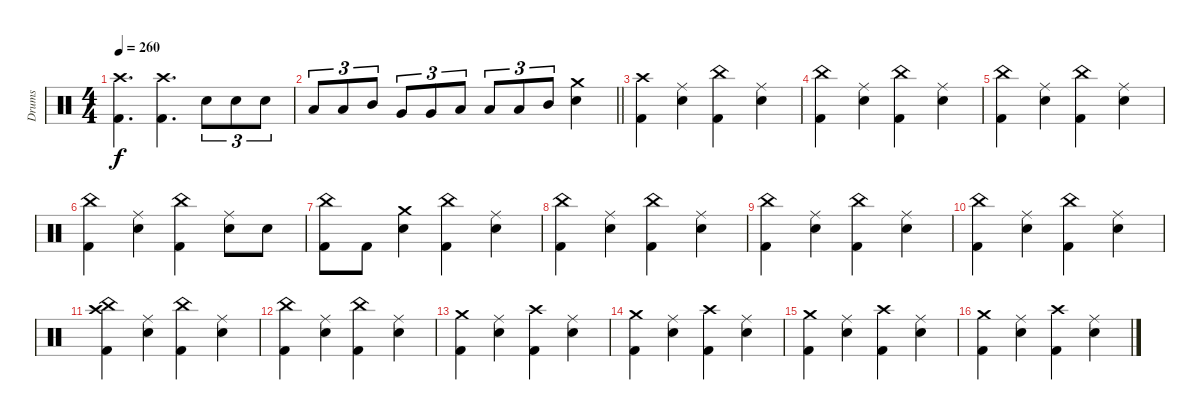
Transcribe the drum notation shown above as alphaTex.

\track ("Drums" "Drums") {instrument percussion}
\staff {score}
\articulation defaults
\ts (4 4)
\tempo 260
\clef neutral
\ks c
("Crash high (hit)" "Kick (hit) 2").4{d dy f} ("Crash high (hit)" "Kick (hit) 2").4{d} "Electric Snare (hit)".8{tu (3 2)} "Electric Snare (hit)".8{tu (3 2)} "Electric Snare (hit)".8{tu (3 2)} |
\barLineRight lightlight "Low Tom (hit)".8{tu (3 2)} "Low Tom (hit)".8{tu (3 2)} "Mid Tom (hit)".8{tu (3 2)} "Very Low Tom (hit)".8{tu (3 2)} "Very Low Tom (hit)".8{tu (3 2)} "Low Tom (hit)".8{tu (3 2)} "Low Tom (hit)".8{tu (3 2)} "Low Tom (hit)".8{tu (3 2)} "Mid Tom (hit)".8{tu (3 2)}
("Crash medium (hit)" "Electric Snare (hit)").4 |
("Crash high (hit)" "Kick (hit) 2").4 ("Ride (middle)" "Electric Snare (hit)").4 ("China (hit)" "Kick (hit) 2").4 ("Ride (middle)" "Electric Snare (hit)").4 |
("China (hit)" "Kick (hit) 2").4 ("Ride (middle)" "Electric Snare (hit)").4 ("China (hit)" "Kick (hit) 2").4 ("Ride (middle)" "Electric Snare (hit)").4 |
("China (hit)" "Kick (hit) 2").4 ("Ride (middle)" "Electric Snare (hit)").4 ("China (hit)" "Kick (hit) 2").4 ("Ride (middle)" "Electric Snare (hit)").4 |
("China (hit)" "Kick (hit) 2").4 ("Ride (middle)" "Electric Snare (hit)").4 ("China (hit)" "Kick (hit) 2").4 ("Ride (middle)" "Electric Snare (hit)").8 "Electric Snare (hit)".8 |
("China (hit)" "Kick (hit) 2").8 "Kick (hit) 2".8 ("Crash medium (hit)" "Electric Snare (hit)").4 ("China (hit)" "Kick (hit) 2").4 ("Ride (middle)" "Electric Snare (hit)").4 |
("China (hit)" "Kick (hit) 2").4 ("Ride (middle)" "Electric Snare (hit)").4 ("China (hit)" "Kick (hit) 2").4 ("Ride (middle)" "Electric Snare (hit)").4 |
("China (hit)" "Kick (hit) 2").4 ("Ride (middle)" "Electric Snare (hit)").4 ("China (hit)" "Kick (hit) 2").4 ("Ride (middle)" "Electric Snare (hit)").4 |
("China (hit)" "Kick (hit) 2").4 ("Ride (middle)" "Electric Snare (hit)").4 ("China (hit)" "Kick (hit) 2").4 ("Ride (middle)" "Electric Snare (hit)").4 |
("Crash high (hit)" "China (hit)" "Kick (hit) 2").4 ("Ride (middle)" "Electric Snare (hit)").4 ("China (hit)" "Kick (hit) 2").4 ("Ride (middle)" "Electric Snare (hit)").4 |
("China (hit)" "Kick (hit) 2").4 ("Ride (middle)" "Electric Snare (hit)").4 ("China (hit)" "Kick (hit) 2").4 ("Ride (middle)" "Electric Snare (hit)").4 |
("Crash medium (hit)" "Kick (hit) 2").4 ("Ride (middle)" "Electric Snare (hit)").4 ("Crash high (hit)" "Kick (hit) 2").4 ("Ride (middle)" "Electric Snare (hit)").4 |
("Crash medium (hit)" "Kick (hit) 2").4 ("Ride (middle)" "Electric Snare (hit)").4 ("Crash high (hit)" "Kick (hit) 2").4 ("Ride (middle)" "Electric Snare (hit)").4 |
("Crash medium (hit)" "Kick (hit) 2").4 ("Ride (middle)" "Electric Snare (hit)").4 ("Crash high (hit)" "Kick (hit) 2").4 ("Ride (middle)" "Electric Snare (hit)").4 |
("Crash medium (hit)" "Kick (hit) 2").4 ("Ride (middle)" "Electric Snare (hit)").4 ("Crash high (hit)" "Kick (hit) 2").4 ("Ride (middle)" "Electric Snare (hit)").4
